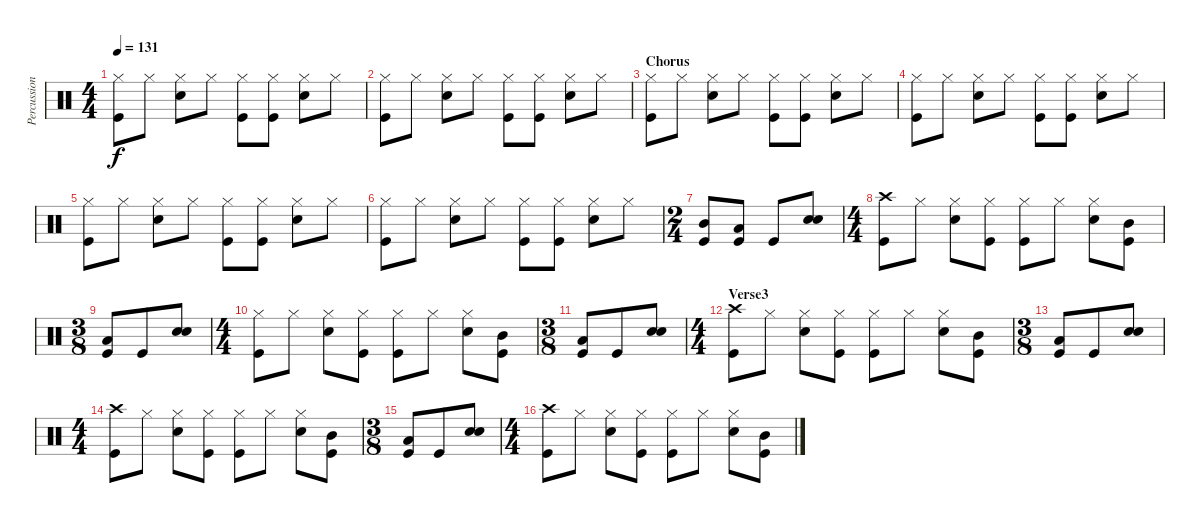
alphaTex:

\track ("Percussions" "Percussion") {instrument percussion}
\staff {score}
\articulation defaults
\ts (4 4)
\tempo 131
\clef neutral
\ks c
("Hi-Hat (closed)" "Kick (hit)").8{dy f} "Hi-Hat (closed)".8 ("Hi-Hat (closed)" "Electric Snare (hit)").8 "Hi-Hat (closed)".8 ("Hi-Hat (closed)" "Kick (hit)").8 ("Hi-Hat (closed)" "Kick (hit)").8 ("Hi-Hat (closed)" "Electric Snare (hit)").8 "Hi-Hat (closed)".8 |
("Hi-Hat (closed)" "Kick (hit)").8 "Hi-Hat (closed)".8 ("Hi-Hat (closed)" "Electric Snare (hit)").8 "Hi-Hat (closed)".8 ("Hi-Hat (closed)" "Kick (hit)").8 ("Hi-Hat (closed)" "Kick (hit)").8 ("Hi-Hat (closed)" "Electric Snare (hit)").8 "Hi-Hat (closed)".8 |
\section ("" "Chorus")
("Hi-Hat (closed)" "Kick (hit)").8 "Hi-Hat (closed)".8 ("Hi-Hat (closed)" "Electric Snare (hit)").8 "Hi-Hat (closed)".8 ("Hi-Hat (closed)" "Kick (hit)").8 ("Hi-Hat (closed)" "Kick (hit)").8 ("Hi-Hat (closed)" "Electric Snare (hit)").8 "Hi-Hat (closed)".8 |
("Hi-Hat (closed)" "Kick (hit)").8 "Hi-Hat (closed)".8 ("Hi-Hat (closed)" "Electric Snare (hit)").8 "Hi-Hat (closed)".8 ("Hi-Hat (closed)" "Kick (hit)").8 ("Hi-Hat (closed)" "Kick (hit)").8 ("Hi-Hat (closed)" "Electric Snare (hit)").8 "Hi-Hat (closed)".8 |
("Hi-Hat (closed)" "Kick (hit)").8 "Hi-Hat (closed)".8 ("Hi-Hat (closed)" "Electric Snare (hit)").8 "Hi-Hat (closed)".8 ("Hi-Hat (closed)" "Kick (hit)").8 ("Hi-Hat (closed)" "Kick (hit)").8 ("Hi-Hat (closed)" "Electric Snare (hit)").8 "Hi-Hat (closed)".8 |
("Hi-Hat (closed)" "Kick (hit)").8 "Hi-Hat (closed)".8 ("Hi-Hat (closed)" "Electric Snare (hit)").8 "Hi-Hat (closed)".8 ("Hi-Hat (closed)" "Kick (hit)").8 ("Hi-Hat (closed)" "Kick (hit)").8 ("Hi-Hat (closed)" "Electric Snare (hit)").8 "Hi-Hat (closed)".8 |
\ts (2 4)
("Mid Tom (hit)" "Kick (hit)").8 ("Low Tom (hit)" "Kick (hit)").8 "Kick (hit)".8 ("Electric Snare (hit)" "Electric Snare (hit)").8{bd 120} |
\ts (4 4)
("Crash high (hit)" "Kick (hit)").8 "Hi-Hat (closed)".8 ("Hi-Hat (closed)" "Electric Snare (hit)").8 ("Hi-Hat (closed)" "Kick (hit)").8 ("Hi-Hat (closed)" "Kick (hit)").8 "Hi-Hat (closed)".8 ("Hi-Hat (closed)" "Electric Snare (hit)").8 ("Mid Tom (hit)" "Kick (hit)").8 |
\ts (3 8)
("Low Tom (hit)" "Kick (hit)").8 "Kick (hit)".8 ("Electric Snare (hit)" "Electric Snare (hit)").8{bd 120} |
\ts (4 4)
("Hi-Hat (closed)" "Kick (hit)").8 "Hi-Hat (closed)".8 ("Hi-Hat (closed)" "Electric Snare (hit)").8 ("Hi-Hat (closed)" "Kick (hit)").8 ("Hi-Hat (closed)" "Kick (hit)").8 "Hi-Hat (closed)".8 ("Hi-Hat (closed)" "Electric Snare (hit)").8 ("Mid Tom (hit)" "Kick (hit)").8 |
\ts (3 8)
("Low Tom (hit)" "Kick (hit)").8 "Kick (hit)".8 ("Electric Snare (hit)" "Electric Snare (hit)").8{bd 120} |
\ts (4 4)
\section ("" "Verse3")
("Crash high (hit)" "Kick (hit)").8 "Hi-Hat (closed)".8 ("Hi-Hat (closed)" "Electric Snare (hit)").8 ("Hi-Hat (closed)" "Kick (hit)").8 ("Hi-Hat (closed)" "Kick (hit)").8 "Hi-Hat (closed)".8 ("Hi-Hat (closed)" "Electric Snare (hit)").8 ("Mid Tom (hit)" "Kick (hit)").8 |
\ts (3 8)
("Low Tom (hit)" "Kick (hit)").8 "Kick (hit)".8 ("Electric Snare (hit)" "Electric Snare (hit)").8{bd 120} |
\ts (4 4)
("Crash high (hit)" "Kick (hit)").8 "Hi-Hat (closed)".8 ("Hi-Hat (closed)" "Electric Snare (hit)").8 ("Hi-Hat (closed)" "Kick (hit)").8 ("Hi-Hat (closed)" "Kick (hit)").8 "Hi-Hat (closed)".8 ("Hi-Hat (closed)" "Electric Snare (hit)").8 ("Mid Tom (hit)" "Kick (hit)").8 |
\ts (3 8)
("Low Tom (hit)" "Kick (hit)").8 "Kick (hit)".8 ("Electric Snare (hit)" "Electric Snare (hit)").8{bd 120} |
\ts (4 4)
("Crash high (hit)" "Kick (hit)").8 "Hi-Hat (closed)".8 ("Hi-Hat (closed)" "Electric Snare (hit)").8 ("Hi-Hat (closed)" "Kick (hit)").8 ("Hi-Hat (closed)" "Kick (hit)").8 "Hi-Hat (closed)".8 ("Hi-Hat (closed)" "Electric Snare (hit)").8 ("Mid Tom (hit)" "Kick (hit)").8
